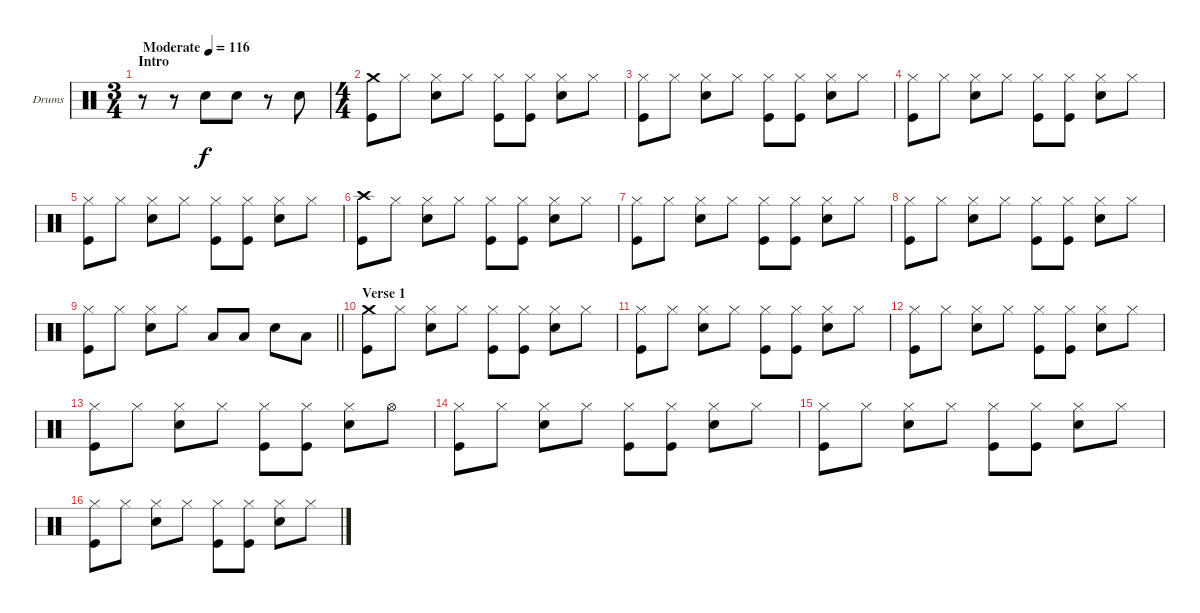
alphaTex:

\bracketExtendMode groupsimilarinstruments
\firstSystemTrackNameOrientation horizontal
\otherSystemsTrackNameOrientation horizontal
\track ("Drumkit" "Drums") {instrument percussion}
\staff {score}
\articulation defaults
\ts (3 4)
\beaming (8 2 2 2)
\section ("" "Intro")
\tempo (116 "Moderate")
\clef neutral
\ks c
r.8{dy f} r.8 "Snare (hit) 2".8 "Snare (hit) 2".8 r.8 "Snare (hit) 2".8 |
\ts (4 4)
\beaming (8 2 2 2 2)
("Crash medium (hit)" "Kick (hit)").8 "Hi-Hat (closed)".8 ("Hi-Hat (closed)" "Snare (hit) 2").8 "Hi-Hat (closed)".8 ("Hi-Hat (closed)" "Kick (hit)").8 ("Hi-Hat (closed)" "Kick (hit)").8 ("Hi-Hat (closed)" "Snare (hit) 2").8 "Hi-Hat (closed)".8 |
("Hi-Hat (closed)" "Kick (hit)").8 "Hi-Hat (closed)".8 ("Hi-Hat (closed)" "Snare (hit) 2").8 "Hi-Hat (closed)".8 ("Hi-Hat (closed)" "Kick (hit)").8 ("Hi-Hat (closed)" "Kick (hit)").8 ("Hi-Hat (closed)" "Snare (hit) 2").8 "Hi-Hat (closed)".8 |
("Hi-Hat (closed)" "Kick (hit)").8 "Hi-Hat (closed)".8 ("Hi-Hat (closed)" "Snare (hit) 2").8 "Hi-Hat (closed)".8 ("Hi-Hat (closed)" "Kick (hit)").8 ("Hi-Hat (closed)" "Kick (hit)").8 ("Hi-Hat (closed)" "Snare (hit) 2").8 "Hi-Hat (closed)".8 |
("Hi-Hat (closed)" "Kick (hit)").8 "Hi-Hat (closed)".8 ("Hi-Hat (closed)" "Snare (hit) 2").8 "Hi-Hat (closed)".8 ("Hi-Hat (closed)" "Kick (hit)").8 ("Hi-Hat (closed)" "Kick (hit)").8 ("Hi-Hat (closed)" "Snare (hit) 2").8 "Hi-Hat (closed)".8 |
("Crash high (hit)" "Kick (hit)").8 "Hi-Hat (closed)".8 ("Hi-Hat (closed)" "Snare (hit) 2").8 "Hi-Hat (closed)".8 ("Hi-Hat (closed)" "Kick (hit)").8 ("Hi-Hat (closed)" "Kick (hit)").8 ("Hi-Hat (closed)" "Snare (hit) 2").8 "Hi-Hat (closed)".8 |
("Hi-Hat (closed)" "Kick (hit)").8 "Hi-Hat (closed)".8 ("Hi-Hat (closed)" "Snare (hit) 2").8 "Hi-Hat (closed)".8 ("Hi-Hat (closed)" "Kick (hit)").8 ("Hi-Hat (closed)" "Kick (hit)").8 ("Hi-Hat (closed)" "Snare (hit) 2").8 "Hi-Hat (closed)".8 |
("Hi-Hat (closed)" "Kick (hit)").8 "Hi-Hat (closed)".8 ("Hi-Hat (closed)" "Snare (hit) 2").8 "Hi-Hat (closed)".8 ("Hi-Hat (closed)" "Kick (hit)").8 ("Hi-Hat (closed)" "Kick (hit)").8 ("Hi-Hat (closed)" "Snare (hit) 2").8 "Hi-Hat (closed)".8 |
\barLineRight lightlight
("Hi-Hat (closed)" "Kick (hit)").8 "Hi-Hat (closed)".8 ("Hi-Hat (closed)" "Snare (hit) 2").8 "Hi-Hat (closed)".8 "Low Tom (hit)".8 "Low Tom (hit)".8 "Snare (hit) 2".8 "Low Tom (hit)".8 |
\section ("" "Verse 1")
("Crash medium (hit)" "Kick (hit)").8 "Hi-Hat (closed)".8 ("Hi-Hat (closed)" "Snare (hit) 2").8 "Hi-Hat (closed)".8 ("Hi-Hat (closed)" "Kick (hit)").8 ("Hi-Hat (closed)" "Kick (hit)").8 ("Hi-Hat (closed)" "Snare (hit) 2").8 "Hi-Hat (closed)".8 |
("Hi-Hat (closed)" "Kick (hit)").8 "Hi-Hat (closed)".8 ("Hi-Hat (closed)" "Snare (hit) 2").8 "Hi-Hat (closed)".8 ("Hi-Hat (closed)" "Kick (hit)").8 ("Hi-Hat (closed)" "Kick (hit)").8 ("Hi-Hat (closed)" "Snare (hit) 2").8 "Hi-Hat (closed)".8 |
("Hi-Hat (closed)" "Kick (hit)").8 "Hi-Hat (closed)".8 ("Hi-Hat (closed)" "Snare (hit) 2").8 "Hi-Hat (closed)".8 ("Hi-Hat (closed)" "Kick (hit)").8 ("Hi-Hat (closed)" "Kick (hit)").8 ("Hi-Hat (closed)" "Snare (hit) 2").8 "Hi-Hat (closed)".8 |
("Hi-Hat (closed)" "Kick (hit)").8 "Hi-Hat (closed)".8 ("Hi-Hat (closed)" "Snare (hit) 2").8 "Hi-Hat (closed)".8 ("Hi-Hat (closed)" "Kick (hit)").8 ("Hi-Hat (closed)" "Kick (hit)").8 ("Hi-Hat (closed)" "Snare (hit) 2").8 "Hi-Hat (open)".8 |
("Hi-Hat (closed)" "Kick (hit)").8 "Hi-Hat (closed)".8 ("Hi-Hat (closed)" "Snare (hit) 2").8 "Hi-Hat (closed)".8 ("Hi-Hat (closed)" "Kick (hit)").8 ("Hi-Hat (closed)" "Kick (hit)").8 ("Hi-Hat (closed)" "Snare (hit) 2").8 "Hi-Hat (closed)".8 |
("Hi-Hat (closed)" "Kick (hit)").8 "Hi-Hat (closed)".8 ("Hi-Hat (closed)" "Snare (hit) 2").8 "Hi-Hat (closed)".8 ("Hi-Hat (closed)" "Kick (hit)").8 ("Hi-Hat (closed)" "Kick (hit)").8 ("Hi-Hat (closed)" "Snare (hit) 2").8 "Hi-Hat (closed)".8 |
("Hi-Hat (closed)" "Kick (hit)").8 "Hi-Hat (closed)".8 ("Hi-Hat (closed)" "Snare (hit) 2").8 "Hi-Hat (closed)".8 ("Hi-Hat (closed)" "Kick (hit)").8 ("Hi-Hat (closed)" "Kick (hit)").8 ("Hi-Hat (closed)" "Snare (hit) 2").8 "Hi-Hat (closed)".8
